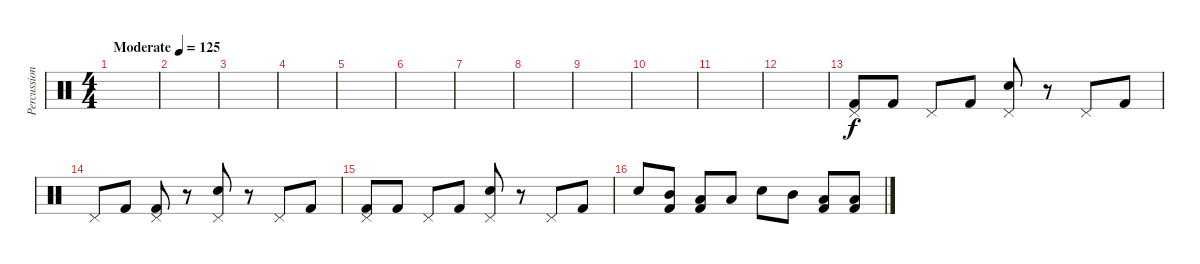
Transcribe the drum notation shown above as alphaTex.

\track ("Percussion" "Percussion") {instrument percussion}
\staff {score}
\articulation defaults
\ts (4 4)
\tempo (125 "Moderate")
\clef neutral
\ks c
|
|
|
|
|
|
|
|
|
|
|
|
("Pedal Hi-Hat (hit)" "Kick (hit) 2").8 "Kick (hit) 2".8 "Pedal Hi-Hat (hit)".8 "Kick (hit) 2".8 ("Pedal Hi-Hat (hit)" "Electric Snare (hit)").8 r.8 "Pedal Hi-Hat (hit)".8 "Kick (hit) 2".8 |
"Pedal Hi-Hat (hit)".8 "Kick (hit) 2".8 ("Pedal Hi-Hat (hit)" "Kick (hit) 2").8 r.8 ("Pedal Hi-Hat (hit)" "Electric Snare (hit)").8 r.8 "Pedal Hi-Hat (hit)".8 "Kick (hit) 2".8 |
("Pedal Hi-Hat (hit)" "Kick (hit) 2").8 "Kick (hit) 2".8 "Pedal Hi-Hat (hit)".8 "Kick (hit) 2".8 ("Pedal Hi-Hat (hit)" "Electric Snare (hit)").8 r.8 "Pedal Hi-Hat (hit)".8 "Kick (hit) 2".8 |
"Electric Snare (hit)".8 ("Mid Tom (hit)" "Kick (hit) 2").8 ("Low Tom (hit)" "Kick (hit) 2").8 "Low Floor Tom (hit)".8 "Electric Snare (hit)".8 "Mid Tom (hit)".8 ("Low Tom (hit)" "Kick (hit) 2").8 ("Low Floor Tom (hit)" "Kick (hit) 2").8
